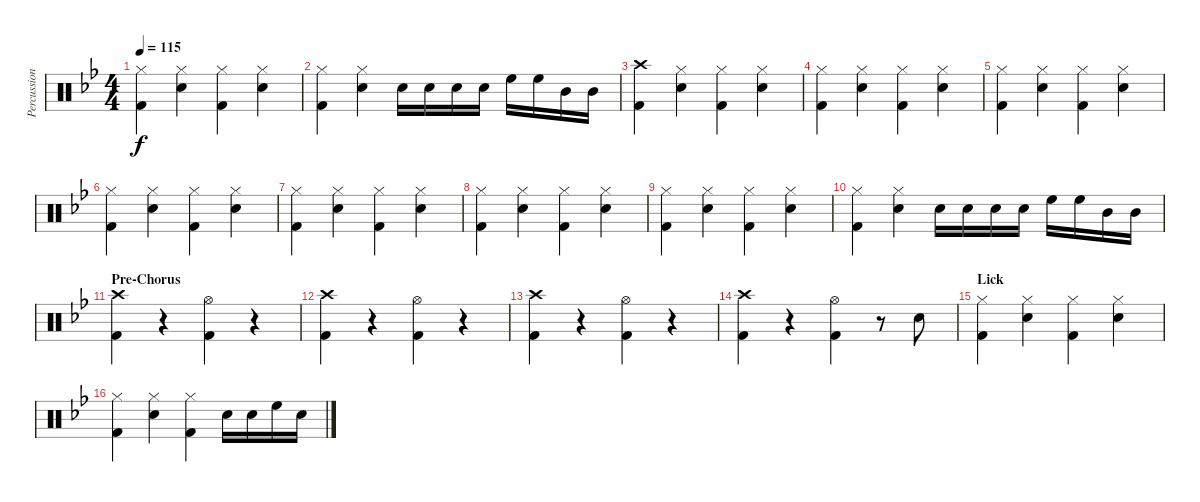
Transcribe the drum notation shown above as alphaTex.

\track ("Percussion" "Percussion") {instrument percussion}
\staff {score}
\articulation defaults
\ts (4 4)
\tempo 115
\clef neutral
\ks bb
("Hi-Hat (closed)" "Kick (hit) 2").4{dy f} ("Hi-Hat (closed)" "Snare (hit) 2").4 ("Hi-Hat (closed)" "Kick (hit) 2").4 ("Hi-Hat (closed)" "Snare (hit) 2").4 |
("Hi-Hat (closed)" "Kick (hit) 2").4 ("Hi-Hat (closed)" "Snare (hit) 2").4 "Snare (hit) 2".16 "Snare (hit) 2".16 "Snare (hit) 2".16 "Snare (hit) 2".16 "High Floor Tom (hit)".16 "High Floor Tom (hit)".16 "Mid Tom (hit)".16 "Mid Tom (hit)".16 |
("Crash high (hit)" "Kick (hit) 2").4 ("Hi-Hat (closed)" "Snare (hit) 2").4 ("Hi-Hat (closed)" "Kick (hit) 2").4 ("Hi-Hat (closed)" "Snare (hit) 2").4 |
("Hi-Hat (closed)" "Kick (hit) 2").4 ("Hi-Hat (closed)" "Snare (hit) 2").4 ("Hi-Hat (closed)" "Kick (hit) 2").4 ("Hi-Hat (closed)" "Snare (hit) 2").4 |
("Hi-Hat (closed)" "Kick (hit) 2").4 ("Hi-Hat (closed)" "Snare (hit) 2").4 ("Hi-Hat (closed)" "Kick (hit) 2").4 ("Hi-Hat (closed)" "Snare (hit) 2").4 |
("Hi-Hat (closed)" "Kick (hit) 2").4 ("Hi-Hat (closed)" "Snare (hit) 2").4 ("Hi-Hat (closed)" "Kick (hit) 2").4 ("Hi-Hat (closed)" "Snare (hit) 2").4 |
("Hi-Hat (closed)" "Kick (hit) 2").4 ("Hi-Hat (closed)" "Snare (hit) 2").4 ("Hi-Hat (closed)" "Kick (hit) 2").4 ("Hi-Hat (closed)" "Snare (hit) 2").4 |
("Hi-Hat (closed)" "Kick (hit) 2").4 ("Hi-Hat (closed)" "Snare (hit) 2").4 ("Hi-Hat (closed)" "Kick (hit) 2").4 ("Hi-Hat (closed)" "Snare (hit) 2").4 |
("Hi-Hat (closed)" "Kick (hit) 2").4 ("Hi-Hat (closed)" "Snare (hit) 2").4 ("Hi-Hat (closed)" "Kick (hit) 2").4 ("Hi-Hat (closed)" "Snare (hit) 2").4 |
("Hi-Hat (closed)" "Kick (hit) 2").4 ("Hi-Hat (closed)" "Snare (hit) 2").4 "Snare (hit) 2".16 "Snare (hit) 2".16 "Snare (hit) 2".16 "Snare (hit) 2".16 "High Floor Tom (hit)".16 "High Floor Tom (hit)".16 "Mid Tom (hit)".16 "Mid Tom (hit)".16 |
\section ("" "Pre-Chorus")
("Crash high (hit)" "Kick (hit) 2").4 r.4 ("Hi-Hat (open)" "Kick (hit) 2").4 r.4 |
("Crash high (hit)" "Kick (hit) 2").4 r.4 ("Hi-Hat (open)" "Kick (hit) 2").4 r.4 |
("Crash high (hit)" "Kick (hit) 2").4 r.4 ("Hi-Hat (open)" "Kick (hit) 2").4 r.4 |
("Crash high (hit)" "Kick (hit) 2").4 r.4 ("Hi-Hat (open)" "Kick (hit) 2").4 r.8 "Snare (hit) 2".8 |
\section ("" "Lick")
("Hi-Hat (closed)" "Kick (hit) 2").4 ("Hi-Hat (closed)" "Snare (hit) 2").4 ("Hi-Hat (closed)" "Kick (hit) 2").4 ("Hi-Hat (closed)" "Snare (hit) 2").4 |
("Hi-Hat (closed)" "Kick (hit) 2").4 ("Hi-Hat (closed)" "Snare (hit) 2").4 ("Hi-Hat (closed)" "Kick (hit) 2").4 "Snare (hit) 2".16 "Snare (hit) 2".16 "High Floor Tom (hit)".16 "Snare (hit) 2".16
